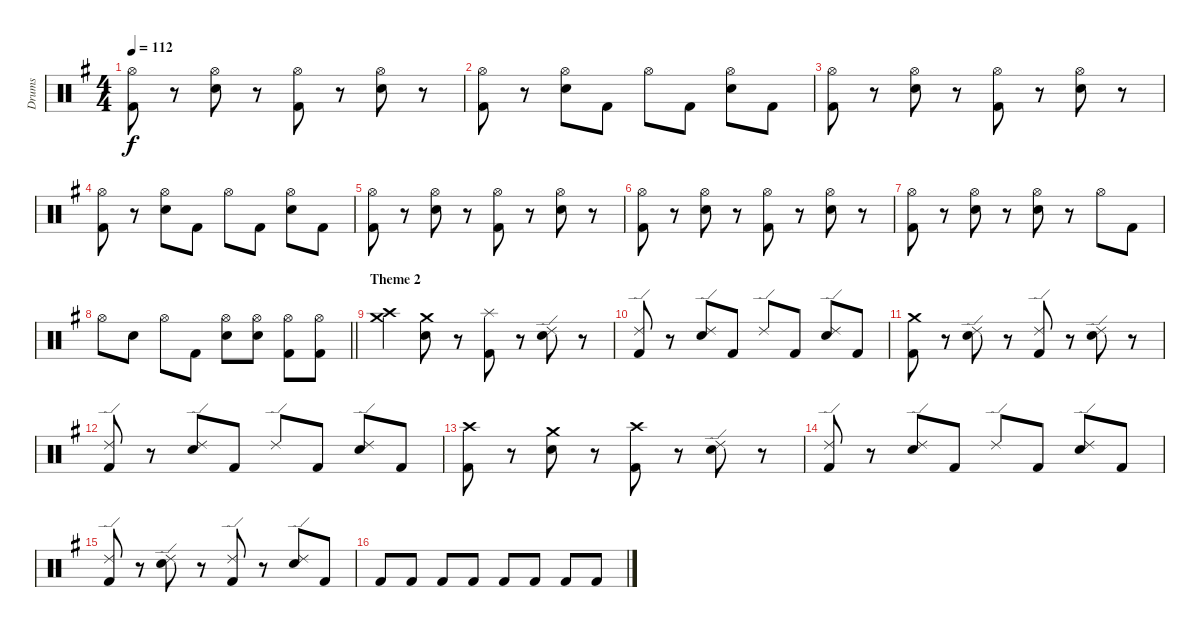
\track ("Drums" "Drums") {instrument percussion}
\staff {score}
\articulation defaults
\ts (4 4)
\tempo 112
\clef neutral
\ks eminor
("Hi-Hat (open)" "Kick (hit) 2").8{dy f} r.8 ("Hi-Hat (open)" "Electric Snare (hit)").8 r.8 ("Hi-Hat (open)" "Kick (hit) 2").8 r.8 ("Hi-Hat (open)" "Electric Snare (hit)").8 r.8 |
("Hi-Hat (open)" "Kick (hit) 2").8 r.8 ("Hi-Hat (open)" "Electric Snare (hit)").8 "Kick (hit) 2".8 "Hi-Hat (open)".8 "Kick (hit) 2".8 ("Hi-Hat (open)" "Electric Snare (hit)").8 "Kick (hit) 2".8 |
("Hi-Hat (open)" "Kick (hit) 2").8 r.8 ("Hi-Hat (open)" "Electric Snare (hit)").8 r.8 ("Hi-Hat (open)" "Kick (hit) 2").8 r.8 ("Hi-Hat (open)" "Electric Snare (hit)").8 r.8 |
("Hi-Hat (open)" "Kick (hit) 2").8 r.8 ("Hi-Hat (open)" "Electric Snare (hit)").8 "Kick (hit) 2".8 "Hi-Hat (open)".8 "Kick (hit) 2".8 ("Hi-Hat (open)" "Electric Snare (hit)").8 "Kick (hit) 2".8 |
("Hi-Hat (open)" "Kick (hit) 2").8 r.8 ("Hi-Hat (open)" "Electric Snare (hit)").8 r.8 ("Hi-Hat (open)" "Kick (hit) 2").8 r.8 ("Hi-Hat (open)" "Electric Snare (hit)").8 r.8 |
("Hi-Hat (open)" "Kick (hit) 2").8 r.8 ("Hi-Hat (open)" "Electric Snare (hit)").8 r.8 ("Hi-Hat (open)" "Kick (hit) 2").8 r.8 ("Hi-Hat (open)" "Electric Snare (hit)").8 r.8 |
("Hi-Hat (open)" "Kick (hit) 2").8 r.8 ("Hi-Hat (open)" "Electric Snare (hit)").8 r.8 ("Hi-Hat (open)" "Electric Snare (hit)").8 r.8 "Hi-Hat (open)".8 "Kick (hit) 2".8 |
\barLineRight lightlight "Hi-Hat (open)".8 "Electric Snare (hit)".8 "Hi-Hat (open)".8 "Kick (hit) 2".8
("Hi-Hat (open)" "Electric Snare (hit)").8 ("Hi-Hat (open)" "Electric Snare (hit)").8 ("Hi-Hat (open)" "Kick (hit) 2").8 ("Hi-Hat (open)" "Kick (hit) 2").8 |
\section ("" "Theme 2")
("Crash high (hit)" "Crash medium (hit)").4 ("Crash medium (hit)" "Electric Snare (hit)").8 r.8 ("Splash (hit)" "Kick (hit) 2").8 r.8 ("Ride (edge) 2" "Electric Snare (hit)").8 r.8 |
("Ride (edge) 2" "Kick (hit) 2").8 r.8 ("Ride (edge) 2" "Electric Snare (hit)").8 "Kick (hit) 2".8 "Ride (edge) 2".8 "Kick (hit) 2".8 ("Ride (edge) 2" "Electric Snare (hit)").8 "Kick (hit) 2".8 |
("Crash medium (hit)" "Kick (hit) 2").8 r.8 ("Ride (edge) 2" "Electric Snare (hit)").8 r.8 ("Ride (edge) 2" "Kick (hit) 2").8 r.8 ("Ride (edge) 2" "Electric Snare (hit)").8 r.8 |
("Ride (edge) 2" "Kick (hit) 2").8 r.8 ("Ride (edge) 2" "Electric Snare (hit)").8 "Kick (hit) 2".8 "Ride (edge) 2".8 "Kick (hit) 2".8 ("Ride (edge) 2" "Electric Snare (hit)").8 "Kick (hit) 2".8 |
("Crash high (hit)" "Kick (hit) 2").8 r.8 ("Crash medium (hit)" "Electric Snare (hit)").8 r.8 ("Crash high (hit)" "Kick (hit) 2").8 r.8 ("Ride (edge) 2" "Electric Snare (hit)").8 r.8 |
("Ride (edge) 2" "Kick (hit) 2").8 r.8 ("Ride (edge) 2" "Electric Snare (hit)").8 "Kick (hit) 2".8 "Ride (edge) 2".8 "Kick (hit) 2".8 ("Ride (edge) 2" "Electric Snare (hit)").8 "Kick (hit) 2".8 |
("Ride (edge) 2" "Kick (hit) 2").8 r.8 ("Ride (edge) 2" "Electric Snare (hit)").8 r.8 ("Ride (edge) 2" "Kick (hit) 2").8 r.8 ("Ride (edge) 2" "Electric Snare (hit)").8 "Kick (hit) 2".8 |
"Kick (hit) 2".8 "Kick (hit) 2".8 "Kick (hit) 2".8 "Kick (hit) 2".8 "Kick (hit) 2".8 "Kick (hit) 2".8 "Kick (hit) 2".8 "Kick (hit) 2".8
